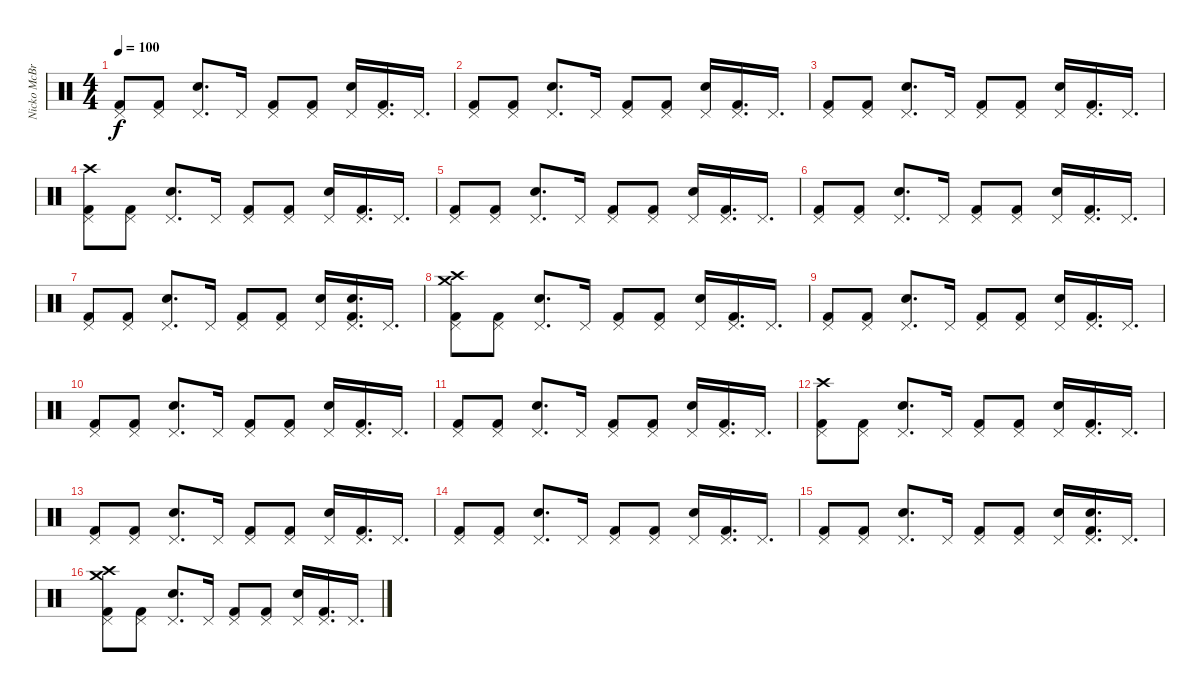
\track ("Nicko McBrain" "Nicko McBr") {instrument percussion}
\staff {score}
\articulation defaults
\ts (4 4)
\tempo 100
\clef neutral
\ks c
("Pedal Hi-Hat (hit)" "Kick (hit) 2").8{dy f} ("Pedal Hi-Hat (hit)" "Kick (hit) 2").8 ("Electric Snare (hit)" "Pedal Hi-Hat (hit)").8{d} "Pedal Hi-Hat (hit)".16 ("Pedal Hi-Hat (hit)" "Kick (hit) 2").8 ("Pedal Hi-Hat (hit)" "Kick (hit) 2").8 ("Electric Snare (hit)" "Pedal Hi-Hat (hit)").16 ("Pedal Hi-Hat (hit)" "Kick (hit) 2").16{d} "Pedal Hi-Hat (hit)".16{d} |
("Pedal Hi-Hat (hit)" "Kick (hit) 2").8 ("Pedal Hi-Hat (hit)" "Kick (hit) 2").8 ("Electric Snare (hit)" "Pedal Hi-Hat (hit)").8{d} "Pedal Hi-Hat (hit)".16 ("Pedal Hi-Hat (hit)" "Kick (hit) 2").8 ("Pedal Hi-Hat (hit)" "Kick (hit) 2").8 ("Electric Snare (hit)" "Pedal Hi-Hat (hit)").16 ("Pedal Hi-Hat (hit)" "Kick (hit) 2").16{d} "Pedal Hi-Hat (hit)".16{d} |
("Pedal Hi-Hat (hit)" "Kick (hit) 2").8 ("Pedal Hi-Hat (hit)" "Kick (hit) 2").8 ("Electric Snare (hit)" "Pedal Hi-Hat (hit)").8{d} "Pedal Hi-Hat (hit)".16 ("Pedal Hi-Hat (hit)" "Kick (hit) 2").8 ("Pedal Hi-Hat (hit)" "Kick (hit) 2").8 ("Electric Snare (hit)" "Pedal Hi-Hat (hit)").16 ("Pedal Hi-Hat (hit)" "Kick (hit) 2").16{d} "Pedal Hi-Hat (hit)".16{d} |
("Pedal Hi-Hat (hit)" "Crash high (hit)" "Kick (hit) 2").8 ("Pedal Hi-Hat (hit)" "Kick (hit) 2").8 ("Electric Snare (hit)" "Pedal Hi-Hat (hit)").8{d} "Pedal Hi-Hat (hit)".16 ("Pedal Hi-Hat (hit)" "Kick (hit) 2").8 ("Pedal Hi-Hat (hit)" "Kick (hit) 2").8 ("Electric Snare (hit)" "Pedal Hi-Hat (hit)").16 ("Pedal Hi-Hat (hit)" "Kick (hit) 2").16{d} "Pedal Hi-Hat (hit)".16{d} |
("Pedal Hi-Hat (hit)" "Kick (hit) 2").8 ("Pedal Hi-Hat (hit)" "Kick (hit) 2").8 ("Electric Snare (hit)" "Pedal Hi-Hat (hit)").8{d} "Pedal Hi-Hat (hit)".16 ("Pedal Hi-Hat (hit)" "Kick (hit) 2").8 ("Pedal Hi-Hat (hit)" "Kick (hit) 2").8 ("Electric Snare (hit)" "Pedal Hi-Hat (hit)").16 ("Pedal Hi-Hat (hit)" "Kick (hit) 2").16{d} "Pedal Hi-Hat (hit)".16{d} |
("Pedal Hi-Hat (hit)" "Kick (hit) 2").8 ("Pedal Hi-Hat (hit)" "Kick (hit) 2").8 ("Electric Snare (hit)" "Pedal Hi-Hat (hit)").8{d} "Pedal Hi-Hat (hit)".16 ("Pedal Hi-Hat (hit)" "Kick (hit) 2").8 ("Pedal Hi-Hat (hit)" "Kick (hit) 2").8 ("Electric Snare (hit)" "Pedal Hi-Hat (hit)").16 ("Pedal Hi-Hat (hit)" "Kick (hit) 2").16{d} "Pedal Hi-Hat (hit)".16{d} |
("Pedal Hi-Hat (hit)" "Kick (hit) 2").8 ("Pedal Hi-Hat (hit)" "Kick (hit) 2").8 ("Electric Snare (hit)" "Pedal Hi-Hat (hit)").8{d} "Pedal Hi-Hat (hit)".16 ("Pedal Hi-Hat (hit)" "Kick (hit) 2").8 ("Pedal Hi-Hat (hit)" "Kick (hit) 2").8 ("Electric Snare (hit)" "Pedal Hi-Hat (hit)").16 ("Pedal Hi-Hat (hit)" "Electric Snare (hit)" "Kick (hit) 2").16{d} "Pedal Hi-Hat (hit)".16{d} |
("Pedal Hi-Hat (hit)" "Crash high (hit)" "Crash medium (hit)" "Kick (hit) 2").8 ("Pedal Hi-Hat (hit)" "Kick (hit) 2").8 ("Electric Snare (hit)" "Pedal Hi-Hat (hit)").8{d} "Pedal Hi-Hat (hit)".16 ("Pedal Hi-Hat (hit)" "Kick (hit) 2").8 ("Pedal Hi-Hat (hit)" "Kick (hit) 2").8 ("Electric Snare (hit)" "Pedal Hi-Hat (hit)").16 ("Pedal Hi-Hat (hit)" "Kick (hit) 2").16{d} "Pedal Hi-Hat (hit)".16{d} |
("Pedal Hi-Hat (hit)" "Kick (hit) 2").8 ("Pedal Hi-Hat (hit)" "Kick (hit) 2").8 ("Electric Snare (hit)" "Pedal Hi-Hat (hit)").8{d} "Pedal Hi-Hat (hit)".16 ("Pedal Hi-Hat (hit)" "Kick (hit) 2").8 ("Pedal Hi-Hat (hit)" "Kick (hit) 2").8 ("Electric Snare (hit)" "Pedal Hi-Hat (hit)").16 ("Pedal Hi-Hat (hit)" "Kick (hit) 2").16{d} "Pedal Hi-Hat (hit)".16{d} |
("Pedal Hi-Hat (hit)" "Kick (hit) 2").8 ("Pedal Hi-Hat (hit)" "Kick (hit) 2").8 ("Electric Snare (hit)" "Pedal Hi-Hat (hit)").8{d} "Pedal Hi-Hat (hit)".16 ("Pedal Hi-Hat (hit)" "Kick (hit) 2").8 ("Pedal Hi-Hat (hit)" "Kick (hit) 2").8 ("Electric Snare (hit)" "Pedal Hi-Hat (hit)").16 ("Pedal Hi-Hat (hit)" "Kick (hit) 2").16{d} "Pedal Hi-Hat (hit)".16{d} |
("Pedal Hi-Hat (hit)" "Kick (hit) 2").8 ("Pedal Hi-Hat (hit)" "Kick (hit) 2").8 ("Electric Snare (hit)" "Pedal Hi-Hat (hit)").8{d} "Pedal Hi-Hat (hit)".16 ("Pedal Hi-Hat (hit)" "Kick (hit) 2").8 ("Pedal Hi-Hat (hit)" "Kick (hit) 2").8 ("Electric Snare (hit)" "Pedal Hi-Hat (hit)").16 ("Pedal Hi-Hat (hit)" "Kick (hit) 2").16{d} "Pedal Hi-Hat (hit)".16{d} |
("Pedal Hi-Hat (hit)" "Crash high (hit)" "Kick (hit) 2").8 ("Pedal Hi-Hat (hit)" "Kick (hit) 2").8 ("Electric Snare (hit)" "Pedal Hi-Hat (hit)").8{d} "Pedal Hi-Hat (hit)".16 ("Pedal Hi-Hat (hit)" "Kick (hit) 2").8 ("Pedal Hi-Hat (hit)" "Kick (hit) 2").8 ("Electric Snare (hit)" "Pedal Hi-Hat (hit)").16 ("Pedal Hi-Hat (hit)" "Kick (hit) 2").16{d} "Pedal Hi-Hat (hit)".16{d} |
("Pedal Hi-Hat (hit)" "Kick (hit) 2").8 ("Pedal Hi-Hat (hit)" "Kick (hit) 2").8 ("Electric Snare (hit)" "Pedal Hi-Hat (hit)").8{d} "Pedal Hi-Hat (hit)".16 ("Pedal Hi-Hat (hit)" "Kick (hit) 2").8 ("Pedal Hi-Hat (hit)" "Kick (hit) 2").8 ("Electric Snare (hit)" "Pedal Hi-Hat (hit)").16 ("Pedal Hi-Hat (hit)" "Kick (hit) 2").16{d} "Pedal Hi-Hat (hit)".16{d} |
("Pedal Hi-Hat (hit)" "Kick (hit) 2").8 ("Pedal Hi-Hat (hit)" "Kick (hit) 2").8 ("Electric Snare (hit)" "Pedal Hi-Hat (hit)").8{d} "Pedal Hi-Hat (hit)".16 ("Pedal Hi-Hat (hit)" "Kick (hit) 2").8 ("Pedal Hi-Hat (hit)" "Kick (hit) 2").8 ("Electric Snare (hit)" "Pedal Hi-Hat (hit)").16 ("Pedal Hi-Hat (hit)" "Kick (hit) 2").16{d} "Pedal Hi-Hat (hit)".16{d} |
("Pedal Hi-Hat (hit)" "Kick (hit) 2").8 ("Pedal Hi-Hat (hit)" "Kick (hit) 2").8 ("Electric Snare (hit)" "Pedal Hi-Hat (hit)").8{d} "Pedal Hi-Hat (hit)".16 ("Pedal Hi-Hat (hit)" "Kick (hit) 2").8 ("Pedal Hi-Hat (hit)" "Kick (hit) 2").8 ("Electric Snare (hit)" "Pedal Hi-Hat (hit)").16 ("Pedal Hi-Hat (hit)" "Electric Snare (hit)" "Kick (hit) 2").16{d} "Pedal Hi-Hat (hit)".16{d} |
("Pedal Hi-Hat (hit)" "Crash high (hit)" "Crash medium (hit)" "Kick (hit) 2").8 ("Pedal Hi-Hat (hit)" "Kick (hit) 2").8 ("Electric Snare (hit)" "Pedal Hi-Hat (hit)").8{d} "Pedal Hi-Hat (hit)".16 ("Pedal Hi-Hat (hit)" "Kick (hit) 2").8 ("Pedal Hi-Hat (hit)" "Kick (hit) 2").8 ("Electric Snare (hit)" "Pedal Hi-Hat (hit)").16 ("Pedal Hi-Hat (hit)" "Kick (hit) 2").16{d} "Pedal Hi-Hat (hit)".16{d}
